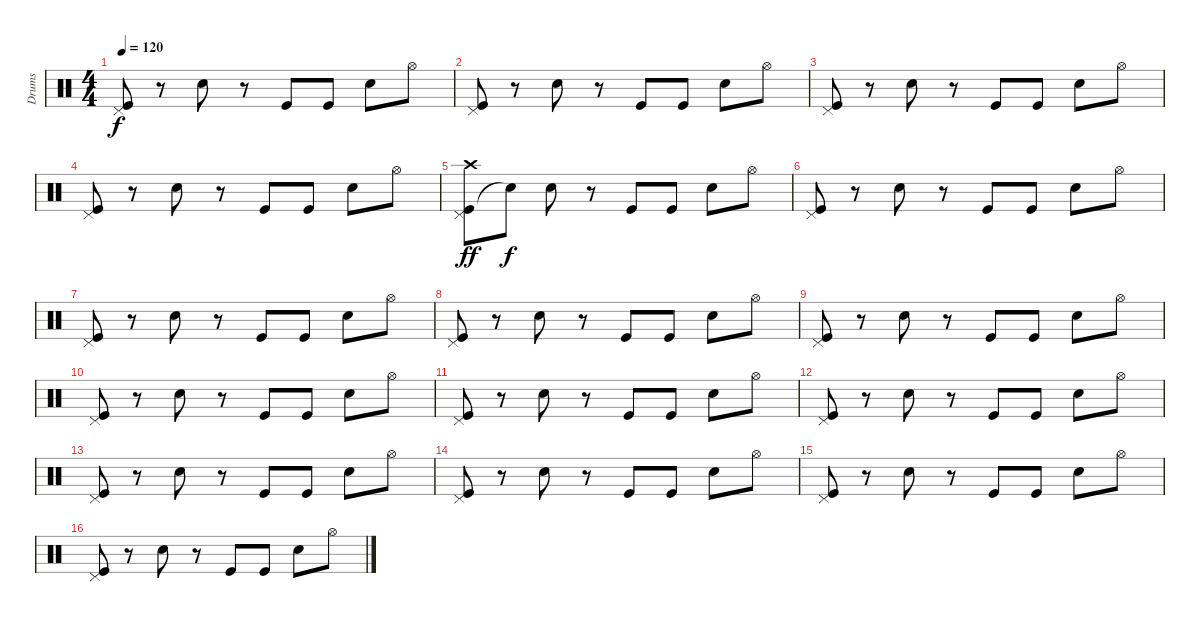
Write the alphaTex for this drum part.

\track ("Drums" "Drums") {instrument percussion}
\staff {score}
\articulation defaults
\ts (4 4)
\tempo 120
\clef neutral
\ks c
("Kick (hit)" "Pedal Hi-Hat (hit)").8{dy f} r.8 "Snare (hit) 2".8 r.8 "Kick (hit)".8 "Kick (hit)".8 "Snare (hit) 2".8 "Hi-Hat (open)".8 |
("Kick (hit)" "Pedal Hi-Hat (hit)").8 r.8 "Snare (hit) 2".8 r.8 "Kick (hit)".8 "Kick (hit)".8 "Snare (hit) 2".8 "Hi-Hat (open)".8 |
("Kick (hit)" "Pedal Hi-Hat (hit)").8 r.8 "Snare (hit) 2".8 r.8 "Kick (hit)".8 "Kick (hit)".8 "Snare (hit) 2".8 "Hi-Hat (open)".8 |
("Kick (hit)" "Pedal Hi-Hat (hit)").8 r.8 "Snare (hit) 2".8 r.8 "Kick (hit)".8 "Kick (hit)".8 "Snare (hit) 2".8 "Hi-Hat (open)".8 |
("Kick (hit)" "Pedal Hi-Hat (hit)" "Crash high (hit)").8{dy ff} "Snare (hit)"{t}.8{dy f} "Snare (hit) 2".8 r.8 "Kick (hit)".8 "Kick (hit)".8 "Snare (hit) 2".8 "Hi-Hat (open)".8 |
("Kick (hit)" "Pedal Hi-Hat (hit)").8 r.8 "Snare (hit) 2".8 r.8 "Kick (hit)".8 "Kick (hit)".8 "Snare (hit) 2".8 "Hi-Hat (open)".8 |
("Kick (hit)" "Pedal Hi-Hat (hit)").8 r.8 "Snare (hit) 2".8 r.8 "Kick (hit)".8 "Kick (hit)".8 "Snare (hit) 2".8 "Hi-Hat (open)".8 |
("Kick (hit)" "Pedal Hi-Hat (hit)").8 r.8 "Snare (hit) 2".8 r.8 "Kick (hit)".8 "Kick (hit)".8 "Snare (hit) 2".8 "Hi-Hat (open)".8 |
("Kick (hit)" "Pedal Hi-Hat (hit)").8 r.8 "Snare (hit) 2".8 r.8 "Kick (hit)".8 "Kick (hit)".8 "Snare (hit) 2".8 "Hi-Hat (open)".8 |
("Kick (hit)" "Pedal Hi-Hat (hit)").8 r.8 "Snare (hit) 2".8 r.8 "Kick (hit)".8 "Kick (hit)".8 "Snare (hit) 2".8 "Hi-Hat (open)".8 |
("Kick (hit)" "Pedal Hi-Hat (hit)").8 r.8 "Snare (hit) 2".8 r.8 "Kick (hit)".8 "Kick (hit)".8 "Snare (hit) 2".8 "Hi-Hat (open)".8 |
("Kick (hit)" "Pedal Hi-Hat (hit)").8 r.8 "Snare (hit) 2".8 r.8 "Kick (hit)".8 "Kick (hit)".8 "Snare (hit) 2".8 "Hi-Hat (open)".8 |
("Kick (hit)" "Pedal Hi-Hat (hit)").8 r.8 "Snare (hit) 2".8 r.8 "Kick (hit)".8 "Kick (hit)".8 "Snare (hit) 2".8 "Hi-Hat (open)".8 |
("Kick (hit)" "Pedal Hi-Hat (hit)").8 r.8 "Snare (hit) 2".8 r.8 "Kick (hit)".8 "Kick (hit)".8 "Snare (hit) 2".8 "Hi-Hat (open)".8 |
("Kick (hit)" "Pedal Hi-Hat (hit)").8 r.8 "Snare (hit) 2".8 r.8 "Kick (hit)".8 "Kick (hit)".8 "Snare (hit) 2".8 "Hi-Hat (open)".8 |
("Kick (hit)" "Pedal Hi-Hat (hit)").8 r.8 "Snare (hit) 2".8 r.8 "Kick (hit)".8 "Kick (hit)".8 "Snare (hit) 2".8 "Hi-Hat (open)".8
